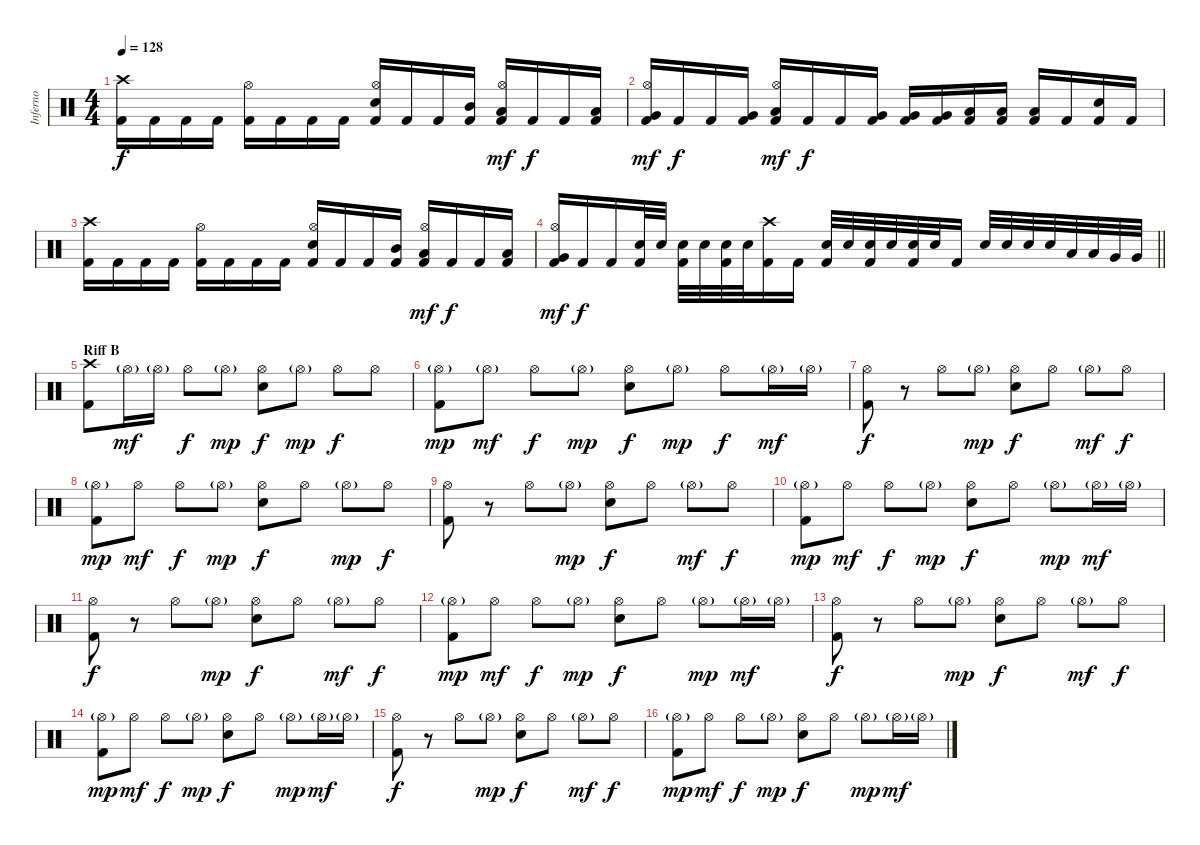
\track ("Inferno" "Inferno") {instrument percussion}
\staff {score}
\articulation defaults
\ts (4 4)
\tempo 128
\clef neutral
\ks c
("Crash high (hit)" "Kick (hit) 2").16{dy f} "Kick (hit) 2".16 "Kick (hit) 2".16 "Kick (hit) 2".16 ("Hi-Hat (open)" "Kick (hit) 2").16 "Kick (hit) 2".16 "Kick (hit) 2".16 "Kick (hit) 2".16 ("Hi-Hat (open)" "Snare (hit) 2" "Kick (hit) 2").16 "Kick (hit) 2".16 "Kick (hit) 2".16 ("Mid Tom (hit)" "Kick (hit) 2").16 ("Low Tom (hit)" "Hi-Hat (open)" "Kick (hit) 2").16{dy mf} "Kick (hit) 2".16{dy f} "Kick (hit) 2".16 ("Low Tom (hit)" "Kick (hit) 2").16 |
("Very Low Tom (hit)" "Hi-Hat (open)" "Kick (hit) 2").16{dy mf} "Kick (hit) 2".16{dy f} "Kick (hit) 2".16 ("Very Low Tom (hit)" "Kick (hit) 2").16 ("Hi-Hat (open)" "Low Floor Tom (hit)" "Kick (hit) 2").16{dy mf} "Kick (hit) 2".16{dy f} "Kick (hit) 2".16 ("Very Low Tom (hit)" "Kick (hit) 2").16 ("Very Low Tom (hit)" "Kick (hit) 2").16 ("Very Low Tom (hit)" "Kick (hit) 2").16 ("Low Floor Tom (hit)" "Kick (hit) 2").16 ("Low Floor Tom (hit)" "Kick (hit) 2").16 ("Low Floor Tom (hit)" "Kick (hit) 2").16 "Kick (hit) 2".16 ("Snare (hit) 2" "Kick (hit) 2").16 "Kick (hit) 2".16 |
("Crash high (hit)" "Kick (hit) 2").16 "Kick (hit) 2".16 "Kick (hit) 2".16 "Kick (hit) 2".16 ("Hi-Hat (open)" "Kick (hit) 2").16 "Kick (hit) 2".16 "Kick (hit) 2".16 "Kick (hit) 2".16 ("Hi-Hat (open)" "Snare (hit) 2" "Kick (hit) 2").16 "Kick (hit) 2".16 "Kick (hit) 2".16 ("Mid Tom (hit)" "Kick (hit) 2").16 ("Low Tom (hit)" "Hi-Hat (open)" "Kick (hit) 2").16{dy mf} "Kick (hit) 2".16{dy f} "Kick (hit) 2".16 ("Low Tom (hit)" "Kick (hit) 2").16 |
\barLineRight lightlight
("Very Low Tom (hit)" "Hi-Hat (open)" "Kick (hit) 2").16{dy mf} "Kick (hit) 2".16{dy f} "Kick (hit) 2".16 ("Snare (hit) 2" "Kick (hit) 2").32 "Snare (hit) 2".32 ("Snare (hit) 2" "Kick (hit) 2").32 "Snare (hit) 2".32 ("Snare (hit) 2" "Kick (hit) 2").32 "Snare (hit) 2".32 ("Crash high (hit)" "Kick (hit) 2").16 "Kick (hit) 2".16 ("Snare (hit) 2" "Kick (hit) 2").32 "Snare (hit) 2".32 ("Snare (hit) 2" "Kick (hit) 2").32 "Snare (hit) 2".32 ("Snare (hit) 2" "Kick (hit) 2").32 "Snare (hit) 2".32 "Kick (hit) 2".16 "Snare (hit) 2".32 "Snare (hit) 2".32 "Snare (hit) 2".32 "Snare (hit) 2".32 "Low Tom (hit)".32 "Low Tom (hit)".32 "Very Low Tom (hit)".32 "Very Low Tom (hit)".32 |
\section ("" "Riff B")
("Crash high (hit)" "Kick (hit) 2").8 "Hi-Hat (open)"{g}.16{dy mf} "Hi-Hat (open)"{g}.16 "Hi-Hat (open)".8{dy f} "Hi-Hat (open)"{g}.8{dy mp} ("Hi-Hat (open)" "Snare (hit) 2").8{dy f} "Hi-Hat (open)"{g}.8{dy mp} "Hi-Hat (open)".8{dy f} "Hi-Hat (open)".8 |
("Hi-Hat (open)"{g} "Kick (hit) 2").8{dy mp} "Hi-Hat (open)"{g}.8{dy mf} "Hi-Hat (open)".8{dy f} "Hi-Hat (open)"{g}.8{dy mp} ("Hi-Hat (open)" "Snare (hit) 2").8{dy f} "Hi-Hat (open)"{g}.8{dy mp} "Hi-Hat (open)".8{dy f} "Hi-Hat (open)"{g}.16{dy mf} "Hi-Hat (open)"{g}.16 |
("Hi-Hat (open)" "Kick (hit) 2").8{dy f} r.8 "Hi-Hat (open)".8 "Hi-Hat (open)"{g}.8{dy mp} ("Hi-Hat (open)" "Snare (hit) 2").8{dy f} "Hi-Hat (open)".8 "Hi-Hat (open)"{g}.8{dy mf} "Hi-Hat (open)".8{dy f} |
("Hi-Hat (open)"{g} "Kick (hit) 2").8{dy mp} "Hi-Hat (open)".8{dy mf} "Hi-Hat (open)".8{dy f} "Hi-Hat (open)"{g}.8{dy mp} ("Hi-Hat (open)" "Snare (hit) 2").8{dy f} "Hi-Hat (open)".8 "Hi-Hat (open)"{g}.8{dy mp} "Hi-Hat (open)".8{dy f} |
("Hi-Hat (open)" "Kick (hit) 2").8 r.8 "Hi-Hat (open)".8 "Hi-Hat (open)"{g}.8{dy mp} ("Hi-Hat (open)" "Snare (hit) 2").8{dy f} "Hi-Hat (open)".8 "Hi-Hat (open)"{g}.8{dy mf} "Hi-Hat (open)".8{dy f} |
("Hi-Hat (open)"{g} "Kick (hit) 2").8{dy mp} "Hi-Hat (open)".8{dy mf} "Hi-Hat (open)".8{dy f} "Hi-Hat (open)"{g}.8{dy mp} ("Hi-Hat (open)" "Snare (hit) 2").8{dy f} "Hi-Hat (open)".8 "Hi-Hat (open)"{g}.8{dy mp} "Hi-Hat (open)"{g}.16{dy mf} "Hi-Hat (open)"{g}.16 |
("Hi-Hat (open)" "Kick (hit) 2").8{dy f} r.8 "Hi-Hat (open)".8 "Hi-Hat (open)"{g}.8{dy mp} ("Hi-Hat (open)" "Snare (hit) 2").8{dy f} "Hi-Hat (open)".8 "Hi-Hat (open)"{g}.8{dy mf} "Hi-Hat (open)".8{dy f} |
("Hi-Hat (open)"{g} "Kick (hit) 2").8{dy mp} "Hi-Hat (open)".8{dy mf} "Hi-Hat (open)".8{dy f} "Hi-Hat (open)"{g}.8{dy mp} ("Hi-Hat (open)" "Snare (hit) 2").8{dy f} "Hi-Hat (open)".8 "Hi-Hat (open)"{g}.8{dy mp} "Hi-Hat (open)"{g}.16{dy mf} "Hi-Hat (open)"{g}.16 |
("Hi-Hat (open)" "Kick (hit) 2").8{dy f} r.8 "Hi-Hat (open)".8 "Hi-Hat (open)"{g}.8{dy mp} ("Hi-Hat (open)" "Snare (hit) 2").8{dy f} "Hi-Hat (open)".8 "Hi-Hat (open)"{g}.8{dy mf} "Hi-Hat (open)".8{dy f} |
("Hi-Hat (open)"{g} "Kick (hit) 2").8{dy mp} "Hi-Hat (open)".8{dy mf} "Hi-Hat (open)".8{dy f} "Hi-Hat (open)"{g}.8{dy mp} ("Hi-Hat (open)" "Snare (hit) 2").8{dy f} "Hi-Hat (open)".8 "Hi-Hat (open)"{g}.8{dy mp} "Hi-Hat (open)"{g}.16{dy mf} "Hi-Hat (open)"{g}.16 |
("Hi-Hat (open)" "Kick (hit) 2").8{dy f} r.8 "Hi-Hat (open)".8 "Hi-Hat (open)"{g}.8{dy mp} ("Hi-Hat (open)" "Snare (hit) 2").8{dy f} "Hi-Hat (open)".8 "Hi-Hat (open)"{g}.8{dy mf} "Hi-Hat (open)".8{dy f} |
("Hi-Hat (open)"{g} "Kick (hit) 2").8{dy mp} "Hi-Hat (open)".8{dy mf} "Hi-Hat (open)".8{dy f} "Hi-Hat (open)"{g}.8{dy mp} ("Hi-Hat (open)" "Snare (hit) 2").8{dy f} "Hi-Hat (open)".8 "Hi-Hat (open)"{g}.8{dy mp} "Hi-Hat (open)"{g}.16{dy mf} "Hi-Hat (open)"{g}.16
